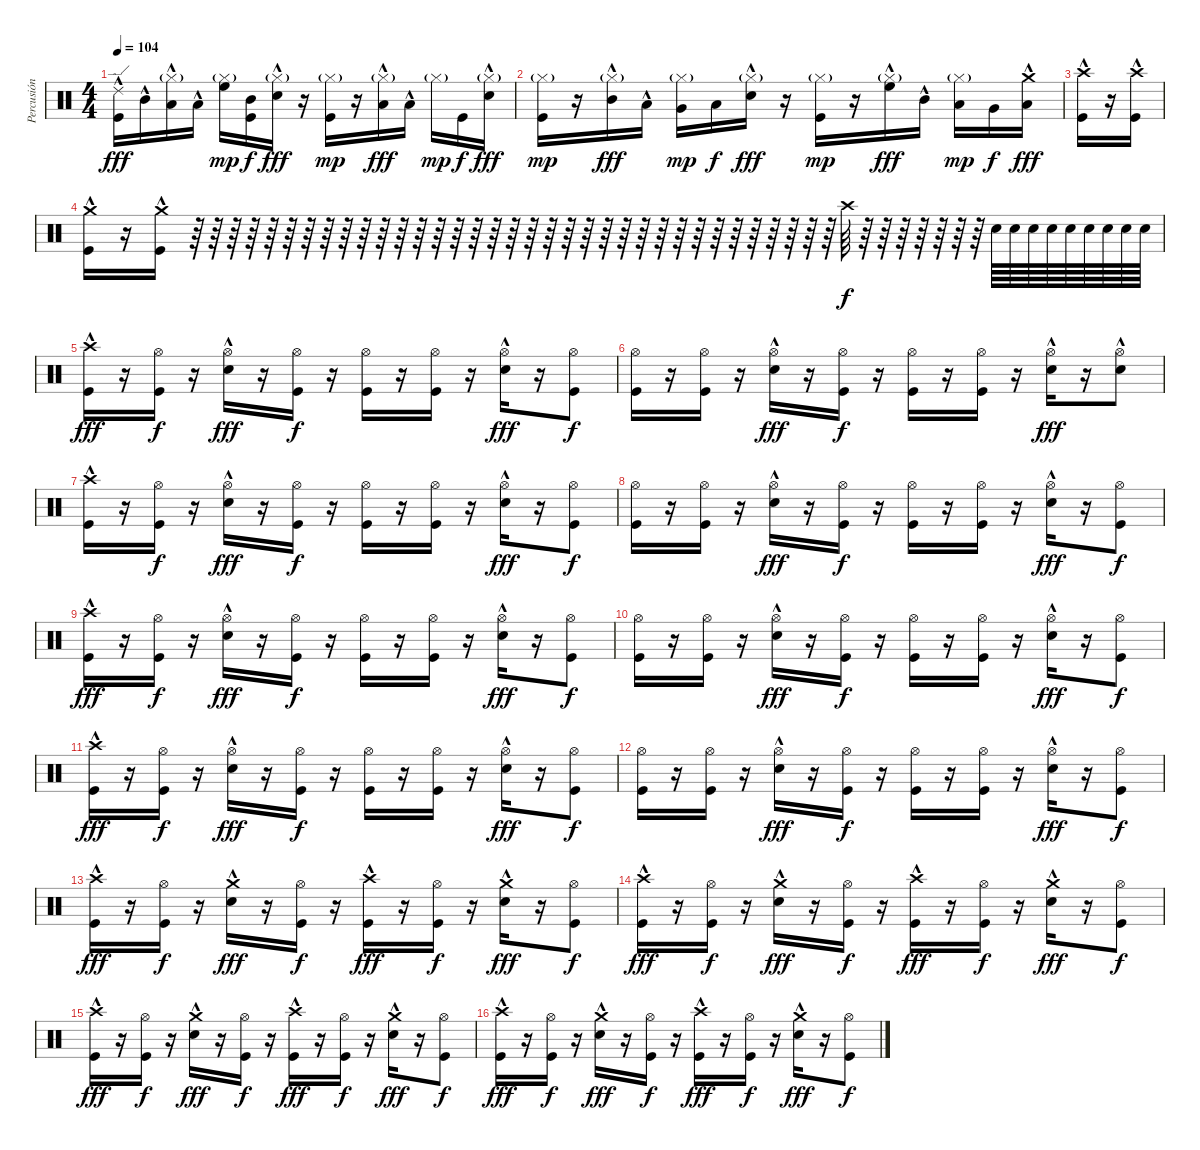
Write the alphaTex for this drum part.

\track ("Percusión" "Percusión") {instrument percussion}
\staff {score}
\articulation defaults
\ts (4 4)
\tempo 104
\clef neutral
\ks c
("Ride (edge) 2"{hac} "Kick (hit)").16{dy fff} "Mid Tom (hit)"{hac}.16 ("Hi-Hat (closed)"{g} "Low Tom (hit)"{hac}).16 "Low Floor Tom (hit)"{hac}.16 ("Hi-Hat (closed)"{g} "High Floor Tom (hit)").16{dy mp} ("Mid Tom (hit)" "Kick (hit)").16{dy f} ("Hi-Hat (closed)"{g} "Snare (hit) 2"{hac}).16{dy fff} r.16 ("Hi-Hat (closed)"{g} "Kick (hit)").16{dy mp} r.16 ("Hi-Hat (closed)"{g} "Low Tom (hit)"{hac}).16{dy fff} "Low Floor Tom (hit)"{hac}.16 "Hi-Hat (closed)"{g}.16{dy mp} "Kick (hit)".16{dy f} ("Hi-Hat (closed)"{g} "Snare (hit) 2"{hac}).16{dy fff} |
("Hi-Hat (closed)"{g} "Kick (hit)").16{dy mp} r.16 ("Hi-Hat (closed)"{g} "Mid Tom (hit)"{hac}).16{dy fff} "Low Tom (hit)"{hac}.16 ("Hi-Hat (closed)"{g} "Very Low Tom (hit)").16{dy mp} "Low Floor Tom (hit)".16{dy f} ("Hi-Hat (closed)"{g} "Snare (hit) 2"{hac}).16{dy fff} r.16 ("Hi-Hat (closed)"{g} "Kick (hit)").16{dy mp} r.16 ("Hi-Hat (closed)"{g} "High Floor Tom (hit)"{hac}).16{dy fff} "Mid Tom (hit)"{hac}.16 ("Hi-Hat (closed)"{g} "Low Tom (hit)").16{dy mp} "Very Low Tom (hit)".16{dy f} ("Crash medium (hit)" "Low Floor Tom (hit)"{hac}).16{dy fff} |
("Crash high (hit)"{hac} "Kick (hit)").16 r.16 ("Crash high (hit)"{hac} "Kick (hit)").16 |
("Crash medium (hit)"{hac} "Kick (hit)").16 r.16 ("Crash medium (hit)"{hac} "Kick (hit)").16 r.64 r.64 r.64 r.64 r.64 r.64 r.64 r.64 r.64 r.64 r.64 r.64 r.64 r.64 r.64 r.64 r.64 r.64 r.64 r.64 r.64 r.64 r.64 r.64 r.64 r.64 r.64 r.64 r.64 r.64 r.64 r.64 r.64 r.64 r.64 "Crash high (hit)".64{dy f} r.64 r.64 r.64 r.64 r.64 r.64 r.64 "Snare (hit)".64 "Snare (hit)".64 "Snare (hit)".64 "Snare (hit)".64 "Snare (hit)".64 "Snare (hit)".64 "Snare (hit)".64 "Snare (hit)".64 "Snare (hit)".64 |
("Crash high (hit)"{hac} "Kick (hit)").16{dy fff} r.16 ("Hi-Hat (open)" "Kick (hit)").16{dy f} r.16 ("Hi-Hat (open)" "Snare (hit) 2"{hac}).16{dy fff} r.16 ("Hi-Hat (open)" "Kick (hit)").16{dy f} r.16 ("Hi-Hat (open)" "Kick (hit)").16 r.16 ("Hi-Hat (open)" "Kick (hit)").16 r.16 ("Hi-Hat (open)" "Snare (hit) 2"{hac}).16{dy fff} r.16 ("Hi-Hat (open)" "Kick (hit)").8{dy f} |
("Hi-Hat (open)" "Kick (hit)").16 r.16 ("Hi-Hat (open)" "Kick (hit)").16 r.16 ("Hi-Hat (open)" "Snare (hit) 2"{hac}).16{dy fff} r.16 ("Hi-Hat (open)" "Kick (hit)").16{dy f} r.16 ("Hi-Hat (open)" "Kick (hit)").16 r.16 ("Hi-Hat (open)" "Kick (hit)").16 r.16 ("Hi-Hat (open)" "Snare (hit) 2"{hac}).16{dy fff} r.16 ("Hi-Hat (open)" "Snare (hit) 2"{hac}).8 |
("Crash high (hit)"{hac} "Kick (hit)").16 r.16 ("Hi-Hat (open)" "Kick (hit)").16{dy f} r.16 ("Hi-Hat (open)" "Snare (hit) 2"{hac}).16{dy fff} r.16 ("Hi-Hat (open)" "Kick (hit)").16{dy f} r.16 ("Hi-Hat (open)" "Kick (hit)").16 r.16 ("Hi-Hat (open)" "Kick (hit)").16 r.16 ("Hi-Hat (open)" "Snare (hit) 2"{hac}).16{dy fff} r.16 ("Hi-Hat (open)" "Kick (hit)").8{dy f} |
("Hi-Hat (open)" "Kick (hit)").16 r.16 ("Hi-Hat (open)" "Kick (hit)").16 r.16 ("Hi-Hat (open)" "Snare (hit) 2"{hac}).16{dy fff} r.16 ("Hi-Hat (open)" "Kick (hit)").16{dy f} r.16 ("Hi-Hat (open)" "Kick (hit)").16 r.16 ("Hi-Hat (open)" "Kick (hit)").16 r.16 ("Hi-Hat (open)" "Snare (hit) 2"{hac}).16{dy fff} r.16 ("Hi-Hat (open)" "Kick (hit)").8{dy f} |
("Crash high (hit)"{hac} "Kick (hit)").16{dy fff} r.16 ("Hi-Hat (open)" "Kick (hit)").16{dy f} r.16 ("Hi-Hat (open)" "Snare (hit) 2"{hac}).16{dy fff} r.16 ("Hi-Hat (open)" "Kick (hit)").16{dy f} r.16 ("Hi-Hat (open)" "Kick (hit)").16 r.16 ("Hi-Hat (open)" "Kick (hit)").16 r.16 ("Hi-Hat (open)" "Snare (hit) 2"{hac}).16{dy fff} r.16 ("Hi-Hat (open)" "Kick (hit)").8{dy f} |
("Hi-Hat (open)" "Kick (hit)").16 r.16 ("Hi-Hat (open)" "Kick (hit)").16 r.16 ("Hi-Hat (open)" "Snare (hit) 2"{hac}).16{dy fff} r.16 ("Hi-Hat (open)" "Kick (hit)").16{dy f} r.16 ("Hi-Hat (open)" "Kick (hit)").16 r.16 ("Hi-Hat (open)" "Kick (hit)").16 r.16 ("Hi-Hat (open)" "Snare (hit) 2"{hac}).16{dy fff} r.16 ("Hi-Hat (open)" "Kick (hit)").8{dy f} |
("Crash high (hit)"{hac} "Kick (hit)").16{dy fff} r.16 ("Hi-Hat (open)" "Kick (hit)").16{dy f} r.16 ("Hi-Hat (open)" "Snare (hit) 2"{hac}).16{dy fff} r.16 ("Hi-Hat (open)" "Kick (hit)").16{dy f} r.16 ("Hi-Hat (open)" "Kick (hit)").16 r.16 ("Hi-Hat (open)" "Kick (hit)").16 r.16 ("Hi-Hat (open)" "Snare (hit) 2"{hac}).16{dy fff} r.16 ("Hi-Hat (open)" "Kick (hit)").8{dy f} |
("Hi-Hat (open)" "Kick (hit)").16 r.16 ("Hi-Hat (open)" "Kick (hit)").16 r.16 ("Hi-Hat (open)" "Snare (hit) 2"{hac}).16{dy fff} r.16 ("Hi-Hat (open)" "Kick (hit)").16{dy f} r.16 ("Hi-Hat (open)" "Kick (hit)").16 r.16 ("Hi-Hat (open)" "Kick (hit)").16 r.16 ("Hi-Hat (open)" "Snare (hit) 2"{hac}).16{dy fff} r.16 ("Hi-Hat (open)" "Kick (hit)").8{dy f} |
("Crash high (hit)"{hac} "Kick (hit)").16{dy fff} r.16 ("Hi-Hat (open)" "Kick (hit)").16{dy f} r.16 ("Crash medium (hit)"{hac} "Snare (hit) 2"{hac}).16{dy fff} r.16 ("Hi-Hat (open)" "Kick (hit)").16{dy f} r.16 ("Crash high (hit)"{hac} "Kick (hit)").16{dy fff} r.16 ("Hi-Hat (open)" "Kick (hit)").16{dy f} r.16 ("Crash medium (hit)"{hac} "Snare (hit) 2"{hac}).16{dy fff} r.16 ("Hi-Hat (open)" "Kick (hit)").8{dy f} |
("Crash high (hit)"{hac} "Kick (hit)").16{dy fff} r.16 ("Hi-Hat (open)" "Kick (hit)").16{dy f} r.16 ("Crash medium (hit)"{hac} "Snare (hit) 2"{hac}).16{dy fff} r.16 ("Hi-Hat (open)" "Kick (hit)").16{dy f} r.16 ("Crash high (hit)"{hac} "Kick (hit)").16{dy fff} r.16 ("Hi-Hat (open)" "Kick (hit)").16{dy f} r.16 ("Crash medium (hit)"{hac} "Snare (hit) 2"{hac}).16{dy fff} r.16 ("Hi-Hat (open)" "Kick (hit)").8{dy f} |
("Crash high (hit)"{hac} "Kick (hit)").16{dy fff} r.16 ("Hi-Hat (open)" "Kick (hit)").16{dy f} r.16 ("Crash medium (hit)"{hac} "Snare (hit) 2"{hac}).16{dy fff} r.16 ("Hi-Hat (open)" "Kick (hit)").16{dy f} r.16 ("Crash high (hit)"{hac} "Kick (hit)").16{dy fff} r.16 ("Hi-Hat (open)" "Kick (hit)").16{dy f} r.16 ("Crash medium (hit)"{hac} "Snare (hit) 2"{hac}).16{dy fff} r.16 ("Hi-Hat (open)" "Kick (hit)").8{dy f} |
("Crash high (hit)"{hac} "Kick (hit)").16{dy fff} r.16 ("Hi-Hat (open)" "Kick (hit)").16{dy f} r.16 ("Crash medium (hit)"{hac} "Snare (hit) 2"{hac}).16{dy fff} r.16 ("Hi-Hat (open)" "Kick (hit)").16{dy f} r.16 ("Crash high (hit)"{hac} "Kick (hit)").16{dy fff} r.16 ("Hi-Hat (open)" "Kick (hit)").16{dy f} r.16 ("Crash medium (hit)"{hac} "Snare (hit) 2"{hac}).16{dy fff} r.16 ("Hi-Hat (open)" "Kick (hit)").8{dy f}
